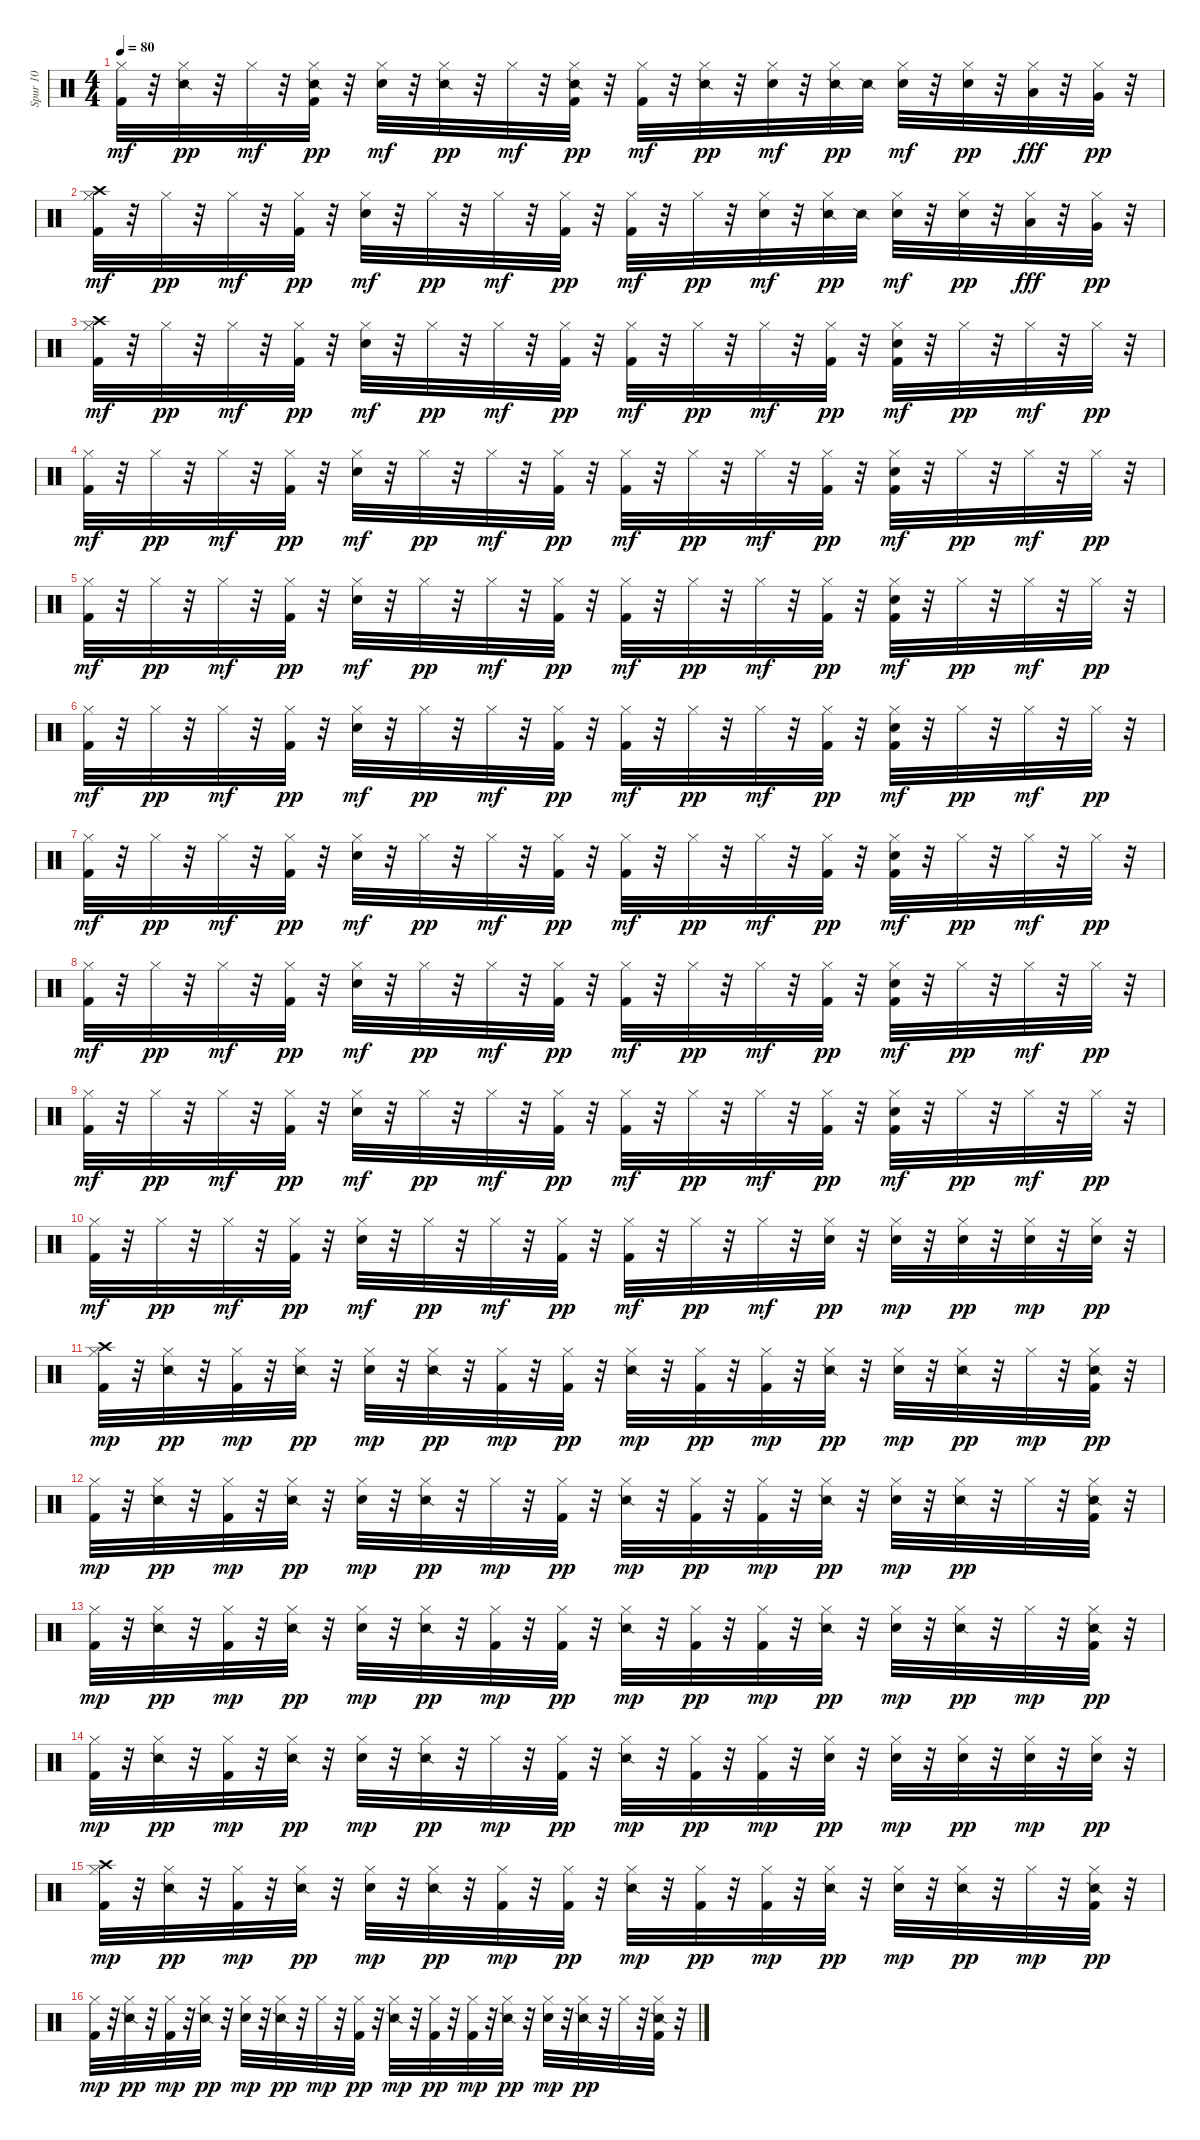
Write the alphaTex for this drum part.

\track ("Spur 10" "Spur 10") {instrument percussion}
\staff {score}
\articulation defaults
\ts (4 4)
\tempo 80
\clef neutral
\ks c
("Kick (hit) 2" "Hi-Hat (closed)").32{dy mf} r.32 ("Snare (side stick) 2" "Hi-Hat (closed)").32{dy pp} r.32 "Hi-Hat (closed)".32{dy mf} r.32 ("Snare (side stick) 2" "Kick (hit) 2" "Hi-Hat (closed)").32{dy pp} r.32 ("Electric Snare (hit)" "Hi-Hat (closed)").32{dy mf} r.32 ("Snare (side stick) 2" "Hi-Hat (closed)").32{dy pp} r.32 "Hi-Hat (closed)".32{dy mf} r.32 ("Snare (side stick) 2" "Kick (hit) 2" "Hi-Hat (closed)").32{dy pp} r.32 ("Kick (hit) 2" "Hi-Hat (closed)").32{dy mf} r.32 ("Snare (side stick) 2" "Hi-Hat (closed)").32{dy pp} r.32 ("Electric Snare (hit)" "Hi-Hat (closed)").32{dy mf} r.32 ("Snare (side stick) 2" "Hi-Hat (closed)").32{dy pp} "Snare (side stick) 2".32 ("Electric Snare (hit)" "Hi-Hat (closed)").32{dy mf} r.32 ("Electric Snare (hit)" "Hi-Hat (closed)").32{dy pp} r.32 ("Hi-Hat (closed)" "Low Tom (hit)").32{dy fff} r.32 ("Hi-Hat (closed)" "Very Low Tom (hit)").32{dy pp} r.32 |
("Crash high (hit)" "Kick (hit) 2" "Hi-Hat (closed)").32{dy mf} r.32 "Hi-Hat (closed)".32{dy pp} r.32 "Hi-Hat (closed)".32{dy mf} r.32 ("Kick (hit) 2" "Hi-Hat (closed)").32{dy pp} r.32 ("Electric Snare (hit)" "Hi-Hat (closed)").32{dy mf} r.32 "Hi-Hat (closed)".32{dy pp} r.32 "Hi-Hat (closed)".32{dy mf} r.32 ("Kick (hit) 2" "Hi-Hat (closed)").32{dy pp} r.32 ("Kick (hit) 2" "Hi-Hat (closed)").32{dy mf} r.32 "Hi-Hat (closed)".32{dy pp} r.32 ("Electric Snare (hit)" "Hi-Hat (closed)").32{dy mf} r.32 ("Snare (side stick) 2" "Hi-Hat (closed)").32{dy pp} "Snare (side stick) 2".32 ("Electric Snare (hit)" "Hi-Hat (closed)").32{dy mf} r.32 ("Electric Snare (hit)" "Hi-Hat (closed)").32{dy pp} r.32 ("Hi-Hat (closed)" "Low Tom (hit)").32{dy fff} r.32 ("Hi-Hat (closed)" "Very Low Tom (hit)").32{dy pp} r.32 |
("Crash high (hit)" "Kick (hit) 2" "Hi-Hat (closed)").32{dy mf} r.32 "Hi-Hat (closed)".32{dy pp} r.32 "Hi-Hat (closed)".32{dy mf} r.32 ("Kick (hit) 2" "Hi-Hat (closed)").32{dy pp} r.32 ("Electric Snare (hit)" "Hi-Hat (closed)").32{dy mf} r.32 "Hi-Hat (closed)".32{dy pp} r.32 "Hi-Hat (closed)".32{dy mf} r.32 ("Kick (hit) 2" "Hi-Hat (closed)").32{dy pp} r.32 ("Kick (hit) 2" "Hi-Hat (closed)").32{dy mf} r.32 "Hi-Hat (closed)".32{dy pp} r.32 "Hi-Hat (closed)".32{dy mf} r.32 ("Kick (hit) 2" "Hi-Hat (closed)").32{dy pp} r.32 ("Kick (hit) 2" "Electric Snare (hit)" "Hi-Hat (closed)").32{dy mf} r.32 "Hi-Hat (closed)".32{dy pp} r.32 "Hi-Hat (closed)".32{dy mf} r.32 "Hi-Hat (closed)".32{dy pp} r.32 |
("Kick (hit) 2" "Hi-Hat (closed)").32{dy mf} r.32 "Hi-Hat (closed)".32{dy pp} r.32 "Hi-Hat (closed)".32{dy mf} r.32 ("Kick (hit) 2" "Hi-Hat (closed)").32{dy pp} r.32 ("Electric Snare (hit)" "Hi-Hat (closed)").32{dy mf} r.32 "Hi-Hat (closed)".32{dy pp} r.32 "Hi-Hat (closed)".32{dy mf} r.32 ("Kick (hit) 2" "Hi-Hat (closed)").32{dy pp} r.32 ("Kick (hit) 2" "Hi-Hat (closed)").32{dy mf} r.32 "Hi-Hat (closed)".32{dy pp} r.32 "Hi-Hat (closed)".32{dy mf} r.32 ("Kick (hit) 2" "Hi-Hat (closed)").32{dy pp} r.32 ("Kick (hit) 2" "Electric Snare (hit)" "Hi-Hat (closed)").32{dy mf} r.32 "Hi-Hat (closed)".32{dy pp} r.32 "Hi-Hat (closed)".32{dy mf} r.32 "Hi-Hat (closed)".32{dy pp} r.32 |
("Kick (hit) 2" "Hi-Hat (closed)").32{dy mf} r.32 "Hi-Hat (closed)".32{dy pp} r.32 "Hi-Hat (closed)".32{dy mf} r.32 ("Kick (hit) 2" "Hi-Hat (closed)").32{dy pp} r.32 ("Electric Snare (hit)" "Hi-Hat (closed)").32{dy mf} r.32 "Hi-Hat (closed)".32{dy pp} r.32 "Hi-Hat (closed)".32{dy mf} r.32 ("Kick (hit) 2" "Hi-Hat (closed)").32{dy pp} r.32 ("Kick (hit) 2" "Hi-Hat (closed)").32{dy mf} r.32 "Hi-Hat (closed)".32{dy pp} r.32 "Hi-Hat (closed)".32{dy mf} r.32 ("Kick (hit) 2" "Hi-Hat (closed)").32{dy pp} r.32 ("Kick (hit) 2" "Electric Snare (hit)" "Hi-Hat (closed)").32{dy mf} r.32 "Hi-Hat (closed)".32{dy pp} r.32 "Hi-Hat (closed)".32{dy mf} r.32 "Hi-Hat (closed)".32{dy pp} r.32 |
("Kick (hit) 2" "Hi-Hat (closed)").32{dy mf} r.32 "Hi-Hat (closed)".32{dy pp} r.32 "Hi-Hat (closed)".32{dy mf} r.32 ("Kick (hit) 2" "Hi-Hat (closed)").32{dy pp} r.32 ("Electric Snare (hit)" "Hi-Hat (closed)").32{dy mf} r.32 "Hi-Hat (closed)".32{dy pp} r.32 "Hi-Hat (closed)".32{dy mf} r.32 ("Kick (hit) 2" "Hi-Hat (closed)").32{dy pp} r.32 ("Kick (hit) 2" "Hi-Hat (closed)").32{dy mf} r.32 "Hi-Hat (closed)".32{dy pp} r.32 "Hi-Hat (closed)".32{dy mf} r.32 ("Kick (hit) 2" "Hi-Hat (closed)").32{dy pp} r.32 ("Kick (hit) 2" "Electric Snare (hit)" "Hi-Hat (closed)").32{dy mf} r.32 "Hi-Hat (closed)".32{dy pp} r.32 "Hi-Hat (closed)".32{dy mf} r.32 "Hi-Hat (closed)".32{dy pp} r.32 |
("Kick (hit) 2" "Hi-Hat (closed)").32{dy mf} r.32 "Hi-Hat (closed)".32{dy pp} r.32 "Hi-Hat (closed)".32{dy mf} r.32 ("Kick (hit) 2" "Hi-Hat (closed)").32{dy pp} r.32 ("Electric Snare (hit)" "Hi-Hat (closed)").32{dy mf} r.32 "Hi-Hat (closed)".32{dy pp} r.32 "Hi-Hat (closed)".32{dy mf} r.32 ("Kick (hit) 2" "Hi-Hat (closed)").32{dy pp} r.32 ("Kick (hit) 2" "Hi-Hat (closed)").32{dy mf} r.32 "Hi-Hat (closed)".32{dy pp} r.32 "Hi-Hat (closed)".32{dy mf} r.32 ("Kick (hit) 2" "Hi-Hat (closed)").32{dy pp} r.32 ("Kick (hit) 2" "Electric Snare (hit)" "Hi-Hat (closed)").32{dy mf} r.32 "Hi-Hat (closed)".32{dy pp} r.32 "Hi-Hat (closed)".32{dy mf} r.32 "Hi-Hat (closed)".32{dy pp} r.32 |
("Kick (hit) 2" "Hi-Hat (closed)").32{dy mf} r.32 "Hi-Hat (closed)".32{dy pp} r.32 "Hi-Hat (closed)".32{dy mf} r.32 ("Kick (hit) 2" "Hi-Hat (closed)").32{dy pp} r.32 ("Electric Snare (hit)" "Hi-Hat (closed)").32{dy mf} r.32 "Hi-Hat (closed)".32{dy pp} r.32 "Hi-Hat (closed)".32{dy mf} r.32 ("Kick (hit) 2" "Hi-Hat (closed)").32{dy pp} r.32 ("Kick (hit) 2" "Hi-Hat (closed)").32{dy mf} r.32 "Hi-Hat (closed)".32{dy pp} r.32 "Hi-Hat (closed)".32{dy mf} r.32 ("Kick (hit) 2" "Hi-Hat (closed)").32{dy pp} r.32 ("Kick (hit) 2" "Electric Snare (hit)" "Hi-Hat (closed)").32{dy mf} r.32 "Hi-Hat (closed)".32{dy pp} r.32 "Hi-Hat (closed)".32{dy mf} r.32 "Hi-Hat (closed)".32{dy pp} r.32 |
("Kick (hit) 2" "Hi-Hat (closed)").32{dy mf} r.32 "Hi-Hat (closed)".32{dy pp} r.32 "Hi-Hat (closed)".32{dy mf} r.32 ("Kick (hit) 2" "Hi-Hat (closed)").32{dy pp} r.32 ("Electric Snare (hit)" "Hi-Hat (closed)").32{dy mf} r.32 "Hi-Hat (closed)".32{dy pp} r.32 "Hi-Hat (closed)".32{dy mf} r.32 ("Kick (hit) 2" "Hi-Hat (closed)").32{dy pp} r.32 ("Kick (hit) 2" "Hi-Hat (closed)").32{dy mf} r.32 "Hi-Hat (closed)".32{dy pp} r.32 "Hi-Hat (closed)".32{dy mf} r.32 ("Kick (hit) 2" "Hi-Hat (closed)").32{dy pp} r.32 ("Kick (hit) 2" "Electric Snare (hit)" "Hi-Hat (closed)").32{dy mf} r.32 "Hi-Hat (closed)".32{dy pp} r.32 "Hi-Hat (closed)".32{dy mf} r.32 "Hi-Hat (closed)".32{dy pp} r.32 |
("Kick (hit) 2" "Hi-Hat (closed)").32{dy mf} r.32 "Hi-Hat (closed)".32{dy pp} r.32 "Hi-Hat (closed)".32{dy mf} r.32 ("Kick (hit) 2" "Hi-Hat (closed)").32{dy pp} r.32 ("Electric Snare (hit)" "Hi-Hat (closed)").32{dy mf} r.32 "Hi-Hat (closed)".32{dy pp} r.32 "Hi-Hat (closed)".32{dy mf} r.32 ("Kick (hit) 2" "Hi-Hat (closed)").32{dy pp} r.32 ("Kick (hit) 2" "Hi-Hat (closed)").32{dy mf} r.32 "Hi-Hat (closed)".32{dy pp} r.32 "Hi-Hat (closed)".32{dy mf} r.32 ("Electric Snare (hit)" "Hi-Hat (closed)").32{dy pp} r.32 ("Electric Snare (hit)" "Hi-Hat (closed)").32{dy mp} r.32 ("Electric Snare (hit)" "Hi-Hat (closed)").32{dy pp} r.32 ("Electric Snare (hit)" "Hi-Hat (closed)").32{dy mp} r.32 ("Electric Snare (hit)" "Hi-Hat (closed)").32{dy pp} r.32 |
("Crash high (hit)" "Kick (hit) 2" "Hi-Hat (closed)").32{dy mp} r.32 ("Snare (side stick) 2" "Hi-Hat (closed)").32{dy pp} r.32 ("Kick (hit) 2" "Hi-Hat (closed)").32{dy mp} r.32 ("Snare (side stick) 2" "Hi-Hat (closed)").32{dy pp} r.32 ("Electric Snare (hit)" "Hi-Hat (closed)").32{dy mp} r.32 ("Snare (side stick) 2" "Hi-Hat (closed)").32{dy pp} r.32 ("Kick (hit) 2" "Hi-Hat (closed)").32{dy mp} r.32 ("Kick (hit) 2" "Hi-Hat (closed)").32{dy pp} r.32 ("Snare (side stick) 2" "Hi-Hat (closed)").32{dy mp} r.32 ("Kick (hit) 2" "Hi-Hat (closed)").32{dy pp} r.32 ("Kick (hit) 2" "Hi-Hat (closed)").32{dy mp} r.32 ("Snare (side stick) 2" "Hi-Hat (closed)").32{dy pp} r.32 ("Electric Snare (hit)" "Hi-Hat (closed)").32{dy mp} r.32 ("Snare (side stick) 2" "Hi-Hat (closed)").32{dy pp} r.32 "Hi-Hat (closed)".32{dy mp} r.32 ("Snare (side stick) 2" "Kick (hit) 2" "Hi-Hat (closed)").32{dy pp} r.32 |
("Kick (hit) 2" "Hi-Hat (closed)").32{dy mp} r.32 ("Snare (side stick) 2" "Hi-Hat (closed)").32{dy pp} r.32 ("Kick (hit) 2" "Hi-Hat (closed)").32{dy mp} r.32 ("Snare (side stick) 2" "Hi-Hat (closed)").32{dy pp} r.32 ("Electric Snare (hit)" "Hi-Hat (closed)").32{dy mp} r.32 ("Snare (side stick) 2" "Hi-Hat (closed)").32{dy pp} r.32 "Hi-Hat (closed)".32{dy mp} r.32 ("Kick (hit) 2" "Hi-Hat (closed)").32{dy pp} r.32 ("Snare (side stick) 2" "Hi-Hat (closed)").32{dy mp} r.32 ("Kick (hit) 2" "Hi-Hat (closed)").32{dy pp} r.32 ("Kick (hit) 2" "Hi-Hat (closed)").32{dy mp} r.32 ("Snare (side stick) 2" "Hi-Hat (closed)").32{dy pp} r.32 ("Electric Snare (hit)" "Hi-Hat (closed)").32{dy mp} r.32 ("Snare (side stick) 2" "Hi-Hat (closed)").32{dy pp} r.32 "Hi-Hat (closed)".32 r.32 ("Snare (side stick) 2" "Kick (hit) 2" "Hi-Hat (closed)").32 r.32 |
("Kick (hit) 2" "Hi-Hat (closed)").32{dy mp} r.32 ("Snare (side stick) 2" "Hi-Hat (closed)").32{dy pp} r.32 ("Kick (hit) 2" "Hi-Hat (closed)").32{dy mp} r.32 ("Snare (side stick) 2" "Hi-Hat (closed)").32{dy pp} r.32 ("Electric Snare (hit)" "Hi-Hat (closed)").32{dy mp} r.32 ("Snare (side stick) 2" "Hi-Hat (closed)").32{dy pp} r.32 ("Kick (hit) 2" "Hi-Hat (closed)").32{dy mp} r.32 ("Kick (hit) 2" "Hi-Hat (closed)").32{dy pp} r.32 ("Snare (side stick) 2" "Hi-Hat (closed)").32{dy mp} r.32 ("Kick (hit) 2" "Hi-Hat (closed)").32{dy pp} r.32 ("Kick (hit) 2" "Hi-Hat (closed)").32{dy mp} r.32 ("Snare (side stick) 2" "Hi-Hat (closed)").32{dy pp} r.32 ("Electric Snare (hit)" "Hi-Hat (closed)").32{dy mp} r.32 ("Snare (side stick) 2" "Hi-Hat (closed)").32{dy pp} r.32 "Hi-Hat (closed)".32{dy mp} r.32 ("Snare (side stick) 2" "Kick (hit) 2" "Hi-Hat (closed)").32{dy pp} r.32 |
("Kick (hit) 2" "Hi-Hat (closed)").32{dy mp} r.32 ("Snare (side stick) 2" "Hi-Hat (closed)").32{dy pp} r.32 ("Kick (hit) 2" "Hi-Hat (closed)").32{dy mp} r.32 ("Snare (side stick) 2" "Hi-Hat (closed)").32{dy pp} r.32 ("Electric Snare (hit)" "Hi-Hat (closed)").32{dy mp} r.32 ("Snare (side stick) 2" "Hi-Hat (closed)").32{dy pp} r.32 "Hi-Hat (closed)".32{dy mp} r.32 ("Kick (hit) 2" "Hi-Hat (closed)").32{dy pp} r.32 ("Snare (side stick) 2" "Hi-Hat (closed)").32{dy mp} r.32 ("Kick (hit) 2" "Hi-Hat (closed)").32{dy pp} r.32 ("Kick (hit) 2" "Hi-Hat (closed)").32{dy mp} r.32 ("Electric Snare (hit)" "Hi-Hat (closed)").32{dy pp} r.32 ("Electric Snare (hit)" "Hi-Hat (closed)").32{dy mp} r.32 ("Electric Snare (hit)" "Hi-Hat (closed)").32{dy pp} r.32 ("Electric Snare (hit)" "Hi-Hat (closed)").32{dy mp} r.32 ("Electric Snare (hit)" "Hi-Hat (closed)").32{dy pp} r.32 |
("Crash high (hit)" "Kick (hit) 2" "Hi-Hat (closed)").32{dy mp} r.32 ("Snare (side stick) 2" "Hi-Hat (closed)").32{dy pp} r.32 ("Kick (hit) 2" "Hi-Hat (closed)").32{dy mp} r.32 ("Snare (side stick) 2" "Hi-Hat (closed)").32{dy pp} r.32 ("Electric Snare (hit)" "Hi-Hat (closed)").32{dy mp} r.32 ("Snare (side stick) 2" "Hi-Hat (closed)").32{dy pp} r.32 ("Kick (hit) 2" "Hi-Hat (closed)").32{dy mp} r.32 ("Kick (hit) 2" "Hi-Hat (closed)").32{dy pp} r.32 ("Snare (side stick) 2" "Hi-Hat (closed)").32{dy mp} r.32 ("Kick (hit) 2" "Hi-Hat (closed)").32{dy pp} r.32 ("Kick (hit) 2" "Hi-Hat (closed)").32{dy mp} r.32 ("Snare (side stick) 2" "Hi-Hat (closed)").32{dy pp} r.32 ("Electric Snare (hit)" "Hi-Hat (closed)").32{dy mp} r.32 ("Snare (side stick) 2" "Hi-Hat (closed)").32{dy pp} r.32 "Hi-Hat (closed)".32{dy mp} r.32 ("Snare (side stick) 2" "Kick (hit) 2" "Hi-Hat (closed)").32{dy pp} r.32 |
("Kick (hit) 2" "Hi-Hat (closed)").32{dy mp} r.32 ("Snare (side stick) 2" "Hi-Hat (closed)").32{dy pp} r.32 ("Kick (hit) 2" "Hi-Hat (closed)").32{dy mp} r.32 ("Snare (side stick) 2" "Hi-Hat (closed)").32{dy pp} r.32 ("Electric Snare (hit)" "Hi-Hat (closed)").32{dy mp} r.32 ("Snare (side stick) 2" "Hi-Hat (closed)").32{dy pp} r.32 "Hi-Hat (closed)".32{dy mp} r.32 ("Kick (hit) 2" "Hi-Hat (closed)").32{dy pp} r.32 ("Snare (side stick) 2" "Hi-Hat (closed)").32{dy mp} r.32 ("Kick (hit) 2" "Hi-Hat (closed)").32{dy pp} r.32 ("Kick (hit) 2" "Hi-Hat (closed)").32{dy mp} r.32 ("Snare (side stick) 2" "Hi-Hat (closed)").32{dy pp} r.32 ("Electric Snare (hit)" "Hi-Hat (closed)").32{dy mp} r.32 ("Snare (side stick) 2" "Hi-Hat (closed)").32{dy pp} r.32 "Hi-Hat (closed)".32 r.32 ("Snare (side stick) 2" "Kick (hit) 2" "Hi-Hat (closed)").32 r.32
